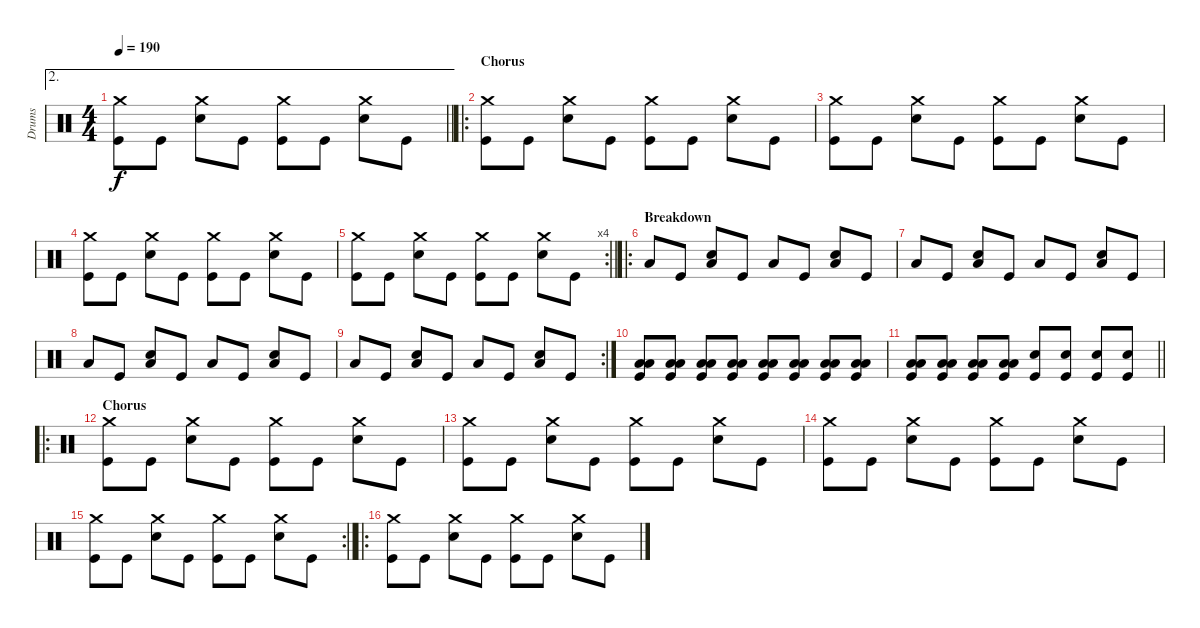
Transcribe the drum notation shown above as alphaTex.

\track ("Drums" "Drums") {instrument percussion}
\staff {score}
\articulation defaults
\ae 2
\ts (4 4)
\tempo 190
\clef neutral
\barLineRight lightlight
\ks c
("Crash medium (hit)" "Kick (hit)").8{dy f} "Kick (hit)".8 ("Crash medium (hit)" "Snare (hit) 2").8 "Kick (hit)".8 ("Crash medium (hit)" "Kick (hit)").8 "Kick (hit)".8 ("Crash medium (hit)" "Snare (hit) 2").8 "Kick (hit)".8 |
\ro
\section ("" "Chorus")
("Crash medium (hit)" "Kick (hit)").8 "Kick (hit)".8 ("Crash medium (hit)" "Snare (hit) 2").8 "Kick (hit)".8 ("Crash medium (hit)" "Kick (hit)").8 "Kick (hit)".8 ("Crash medium (hit)" "Snare (hit) 2").8 "Kick (hit)".8 |
("Crash medium (hit)" "Kick (hit)").8 "Kick (hit)".8 ("Crash medium (hit)" "Snare (hit) 2").8 "Kick (hit)".8 ("Crash medium (hit)" "Kick (hit)").8 "Kick (hit)".8 ("Crash medium (hit)" "Snare (hit) 2").8 "Kick (hit)".8 |
("Crash medium (hit)" "Kick (hit)").8 "Kick (hit)".8 ("Crash medium (hit)" "Snare (hit) 2").8 "Kick (hit)".8 ("Crash medium (hit)" "Kick (hit)").8 "Kick (hit)".8 ("Crash medium (hit)" "Snare (hit) 2").8 "Kick (hit)".8 |
\rc 4
\barLineRight lightlight
("Crash medium (hit)" "Kick (hit)").8 "Kick (hit)".8 ("Crash medium (hit)" "Snare (hit) 2").8 "Kick (hit)".8 ("Crash medium (hit)" "Kick (hit)").8 "Kick (hit)".8 ("Crash medium (hit)" "Snare (hit) 2").8 "Kick (hit)".8 |
\ro
\section ("" "Breakdown")
"Low Floor Tom (hit)".8 "Kick (hit)".8 ("Snare (hit) 2" "Low Floor Tom (hit)").8 "Kick (hit)".8 "Low Floor Tom (hit)".8 "Kick (hit)".8 ("Snare (hit) 2" "Low Floor Tom (hit)").8 "Kick (hit)".8 |
"Low Floor Tom (hit)".8 "Kick (hit)".8 ("Snare (hit) 2" "Low Floor Tom (hit)").8 "Kick (hit)".8 "Low Floor Tom (hit)".8 "Kick (hit)".8 ("Snare (hit) 2" "Low Floor Tom (hit)").8 "Kick (hit)".8 |
"Low Floor Tom (hit)".8 "Kick (hit)".8 ("Snare (hit) 2" "Low Floor Tom (hit)").8 "Kick (hit)".8 "Low Floor Tom (hit)".8 "Kick (hit)".8 ("Snare (hit) 2" "Low Floor Tom (hit)").8 "Kick (hit)".8 |
\rc 2 "Low Floor Tom (hit)".8 "Kick (hit)".8
("Snare (hit) 2" "Low Floor Tom (hit)").8 "Kick (hit)".8 "Low Floor Tom (hit)".8 "Kick (hit)".8 ("Snare (hit) 2" "Low Floor Tom (hit)").8 "Kick (hit)".8 |
("Low Tom (hit)" "Low Floor Tom (hit)" "Kick (hit)").8 ("Low Tom (hit)" "Low Floor Tom (hit)" "Kick (hit)").8 ("Low Tom (hit)" "Low Floor Tom (hit)" "Kick (hit)").8 ("Low Tom (hit)" "Low Floor Tom (hit)" "Kick (hit)").8 ("Low Tom (hit)" "Low Floor Tom (hit)" "Kick (hit)").8 ("Low Tom (hit)" "Low Floor Tom (hit)" "Kick (hit)").8 ("Low Tom (hit)" "Low Floor Tom (hit)" "Kick (hit)").8 ("Low Tom (hit)" "Low Floor Tom (hit)" "Kick (hit)").8 |
\barLineRight lightlight
("Low Tom (hit)" "Low Floor Tom (hit)" "Kick (hit)").8 ("Low Tom (hit)" "Low Floor Tom (hit)" "Kick (hit)").8 ("Low Tom (hit)" "Low Floor Tom (hit)" "Kick (hit)").8 ("Low Tom (hit)" "Low Floor Tom (hit)" "Kick (hit)").8 ("Snare (hit) 2" "Kick (hit)").8 ("Snare (hit) 2" "Kick (hit)").8 ("Snare (hit) 2" "Kick (hit)").8 ("Snare (hit) 2" "Kick (hit)").8 |
\ro
\section ("" "Chorus")
("Crash medium (hit)" "Kick (hit)").8 "Kick (hit)".8 ("Crash medium (hit)" "Snare (hit) 2").8 "Kick (hit)".8 ("Crash medium (hit)" "Kick (hit)").8 "Kick (hit)".8 ("Crash medium (hit)" "Snare (hit) 2").8 "Kick (hit)".8 |
("Crash medium (hit)" "Kick (hit)").8 "Kick (hit)".8 ("Crash medium (hit)" "Snare (hit) 2").8 "Kick (hit)".8 ("Crash medium (hit)" "Kick (hit)").8 "Kick (hit)".8 ("Crash medium (hit)" "Snare (hit) 2").8 "Kick (hit)".8 |
("Crash medium (hit)" "Kick (hit)").8 "Kick (hit)".8 ("Crash medium (hit)" "Snare (hit) 2").8 "Kick (hit)".8 ("Crash medium (hit)" "Kick (hit)").8 "Kick (hit)".8 ("Crash medium (hit)" "Snare (hit) 2").8 "Kick (hit)".8 |
\rc 2
\barLineRight lightlight
("Crash medium (hit)" "Kick (hit)").8 "Kick (hit)".8 ("Crash medium (hit)" "Snare (hit) 2").8 "Kick (hit)".8 ("Crash medium (hit)" "Kick (hit)").8 "Kick (hit)".8 ("Crash medium (hit)" "Snare (hit) 2").8 "Kick (hit)".8 |
\ro
("Crash medium (hit)" "Kick (hit)").8 "Kick (hit)".8 ("Crash medium (hit)" "Snare (hit) 2").8 "Kick (hit)".8 ("Crash medium (hit)" "Kick (hit)").8 "Kick (hit)".8 ("Crash medium (hit)" "Snare (hit) 2").8 "Kick (hit)".8
